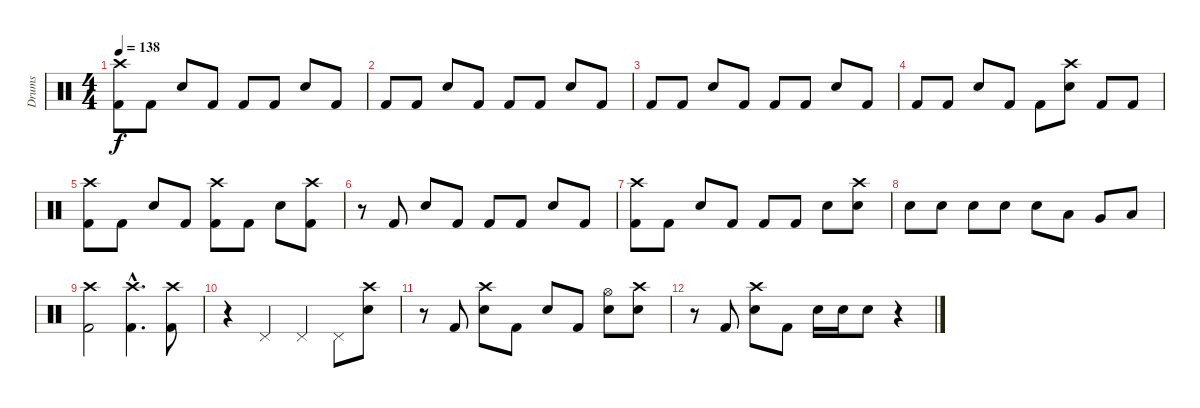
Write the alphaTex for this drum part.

\track ("Drums" "Drums") {instrument percussion}
\staff {score}
\articulation defaults
\ts (4 4)
\tempo 138
\clef neutral
\ks c
("Crash high (hit)" "Kick (hit) 2").8{dy f} "Kick (hit) 2".8 "Snare (hit) 2".8 "Kick (hit) 2".8 "Kick (hit) 2".8 "Kick (hit) 2".8 "Snare (hit) 2".8 "Kick (hit) 2".8 |
"Kick (hit) 2".8 "Kick (hit) 2".8 "Snare (hit) 2".8 "Kick (hit) 2".8 "Kick (hit) 2".8 "Kick (hit) 2".8 "Snare (hit) 2".8 "Kick (hit) 2".8 |
"Kick (hit) 2".8 "Kick (hit) 2".8 "Snare (hit) 2".8 "Kick (hit) 2".8 "Kick (hit) 2".8 "Kick (hit) 2".8 "Snare (hit) 2".8 "Kick (hit) 2".8 |
"Kick (hit) 2".8 "Kick (hit) 2".8 "Snare (hit) 2".8 "Kick (hit) 2".8 "Kick (hit) 2".8 ("Crash high (hit)" "Snare (hit) 2").8 "Kick (hit) 2".8 "Kick (hit) 2".8 |
("Crash high (hit)" "Kick (hit) 2").8 "Kick (hit) 2".8 "Snare (hit) 2".8 "Kick (hit) 2".8 ("Crash high (hit)" "Kick (hit) 2").8 "Kick (hit) 2".8 "Snare (hit) 2".8 ("Crash high (hit)" "Kick (hit) 2").8 |
r.8 "Kick (hit) 2".8 "Snare (hit) 2".8 "Kick (hit) 2".8 "Kick (hit) 2".8 "Kick (hit) 2".8 "Snare (hit) 2".8 "Kick (hit) 2".8 |
("Crash high (hit)" "Kick (hit) 2").8 "Kick (hit) 2".8 "Snare (hit) 2".8 "Kick (hit) 2".8 "Kick (hit) 2".8 "Kick (hit) 2".8 "Snare (hit) 2".8 ("Crash high (hit)" "Snare (hit) 2").8 |
"Snare (hit) 2".8 "Snare (hit) 2".8 "Snare (hit) 2".8 "Snare (hit) 2".8 "Snare (hit) 2".8 "Low Tom (hit)".8 "Very Low Tom (hit)".8 "Low Floor Tom (hit)".8 |
("Crash high (hit)" "Kick (hit) 2").2 ("Crash high (hit)"{hac} "Kick (hit) 2"{hac}).4{d} ("Crash high (hit)" "Kick (hit) 2").8 |
r.4 "Pedal Hi-Hat (hit)".4 "Pedal Hi-Hat (hit)".4 "Pedal Hi-Hat (hit)".8 ("Crash high (hit)" "Snare (hit) 2").8 |
r.8 "Kick (hit) 2".8 ("Crash high (hit)" "Snare (hit) 2").8 "Kick (hit) 2".8 "Snare (hit) 2".8 "Kick (hit) 2".8 ("Hi-Hat (open)" "Snare (hit) 2").8 ("Crash high (hit)" "Snare (hit) 2").8 |
r.8 "Kick (hit) 2".8 ("Crash high (hit)" "Snare (hit) 2").8 "Kick (hit) 2".8 "Snare (hit) 2".16 "Snare (hit) 2".16 "Snare (hit) 2".8 r.4
